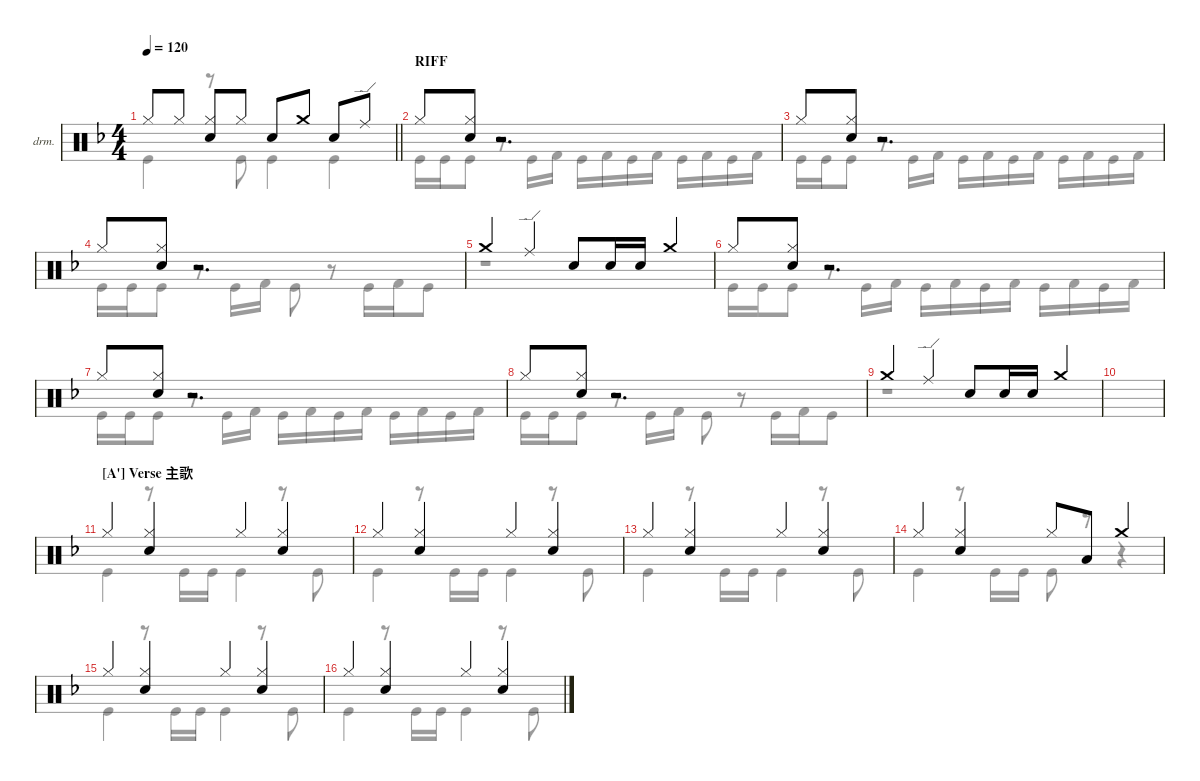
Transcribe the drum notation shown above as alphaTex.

\defaultSystemsLayout 4
\hideDynamics
\bracketExtendMode nobrackets
\firstSystemTrackNameOrientation horizontal
\track ("Drumkit" "drm.") {mute instrument percussion}
\staff {score}
\articulation defaults
\voice
\ts (4 4)
\tempo 120
\clef neutral
\barLineRight lightlight
\ks dminor "Hi-Hat (closed)"{acc forcenatural}.8{dy mf} "Hi-Hat (closed)"{acc forcenatural}.8
("Hi-Hat (closed)"{acc forcenatural} "Snare (hit) 2"{acc forcenatural}).8 "Hi-Hat (closed)"{acc forcenatural}.8 "Snare (hit) 2"{acc forcenatural}.8 "Crash medium (hit)"{acc forcenatural}.8 "Snare (hit) 2"{acc forcenatural}.8 "Ride (edge)"{acc forcenatural}.8 |
\section ("" "RIFF")
"Hi-Hat (closed)"{acc forcenatural}.8 ("Hi-Hat (closed)"{acc forcenatural} "Snare (hit) 2"{acc forcenatural}).8 r.2{d} |
"Hi-Hat (closed)"{acc forcenatural}.8 ("Hi-Hat (closed)"{acc forcenatural} "Snare (hit) 2"{acc forcenatural}).8 r.2{d} |
"Hi-Hat (closed)"{acc forcenatural}.8 ("Hi-Hat (closed)"{acc forcenatural} "Snare (hit) 2"{acc forcenatural}).8 r.2{d} |
"Crash medium (hit)"{acc forcenatural}.4 "Ride (edge)"{acc forcenatural}.4 "Snare (hit) 2"{acc forcenatural}.8 "Snare (hit) 2"{acc forcenatural}.16 "Snare (hit) 2"{acc forcenatural}.16 "Crash medium (hit)"{acc forcenatural}.4 |
"Hi-Hat (closed)"{acc forcenatural}.8 ("Hi-Hat (closed)"{acc forcenatural} "Snare (hit) 2"{acc forcenatural}).8 r.2{d} |
"Hi-Hat (closed)"{acc forcenatural}.8 ("Hi-Hat (closed)"{acc forcenatural} "Snare (hit) 2"{acc forcenatural}).8 r.2{d} |
"Hi-Hat (closed)"{acc forcenatural}.8 ("Hi-Hat (closed)"{acc forcenatural} "Snare (hit) 2"{acc forcenatural}).8 r.2{d} |
"Crash medium (hit)"{acc forcenatural}.4 "Ride (edge)"{acc forcenatural}.4 "Snare (hit) 2"{acc forcenatural}.8 "Snare (hit) 2"{acc forcenatural}.16 "Snare (hit) 2"{acc forcenatural}.16 "Crash medium (hit)"{acc forcenatural}.4 |
|
\section ("A'" "Verse 主歌")
"Hi-Hat (closed)"{acc forcenatural}.4 ("Snare (hit) 2"{acc forcenatural} "Hi-Hat (closed)"{acc forcenatural}).4 "Hi-Hat (closed)"{acc forcenatural}.4 ("Hi-Hat (closed)"{acc forcenatural} "Snare (hit) 2"{acc forcenatural}).4 |
"Hi-Hat (closed)"{acc forcenatural}.4 ("Snare (hit) 2"{acc forcenatural} "Hi-Hat (closed)"{acc forcenatural}).4 "Hi-Hat (closed)"{acc forcenatural}.4 ("Hi-Hat (closed)"{acc forcenatural} "Snare (hit) 2"{acc forcenatural}).4 |
"Hi-Hat (closed)"{acc forcenatural}.4 ("Snare (hit) 2"{acc forcenatural} "Hi-Hat (closed)"{acc forcenatural}).4 "Hi-Hat (closed)"{acc forcenatural}.4 ("Hi-Hat (closed)"{acc forcenatural} "Snare (hit) 2"{acc forcenatural}).4 |
"Hi-Hat (closed)"{acc forcenatural}.4 ("Snare (hit) 2"{acc forcenatural} "Hi-Hat (closed)"{acc forcenatural}).4 "Hi-Hat (closed)"{acc forcenatural}.8 "Low Floor Tom (hit)"{acc forcenatural}.8 "Crash medium (hit)"{acc forcenatural}.4 |
"Hi-Hat (closed)"{acc forcenatural}.4 ("Snare (hit) 2"{acc forcenatural} "Hi-Hat (closed)"{acc forcenatural}).4 "Hi-Hat (closed)"{acc forcenatural}.4 ("Hi-Hat (closed)"{acc forcenatural} "Snare (hit) 2"{acc forcenatural}).4 |
"Hi-Hat (closed)"{acc forcenatural}.4 ("Snare (hit) 2"{acc forcenatural} "Hi-Hat (closed)"{acc forcenatural}).4 "Hi-Hat (closed)"{acc forcenatural}.4 ("Hi-Hat (closed)"{acc forcenatural} "Snare (hit) 2"{acc forcenatural}).4
\voice
\clef neutral
\ottava regular
\simile none
\barLineRight lightlight
\ks dminor "Kick (hit)"{acc forcenatural}.4{dy mf}
r.8 "Kick (hit)"{acc forcenatural}.8 "Kick (hit)"{acc forcenatural}.4 "Kick (hit)"{acc forcenatural}.4 |
"Kick (hit)"{acc forcenatural}.16 "Kick (hit)"{acc forcenatural}.16 "Kick (hit)"{acc forcenatural}.8 r.8 "Kick (hit)"{acc forcenatural}.16 "Kick (hit) 2"{acc forcenatural}.16 "Kick (hit)"{acc forcenatural}.16 "Kick (hit) 2"{acc forcenatural}.16 "Kick (hit)"{acc forcenatural}.16 "Kick (hit) 2"{acc forcenatural}.16 "Kick (hit)"{acc forcenatural}.16 "Kick (hit) 2"{acc forcenatural}.16 "Kick (hit)"{acc forcenatural}.16 "Kick (hit) 2"{acc forcenatural}.16 |
"Kick (hit)"{acc forcenatural}.16 "Kick (hit)"{acc forcenatural}.16 "Kick (hit)"{acc forcenatural}.8 r.8 "Kick (hit)"{acc forcenatural}.16 "Kick (hit) 2"{acc forcenatural}.16 "Kick (hit)"{acc forcenatural}.16 "Kick (hit) 2"{acc forcenatural}.16 "Kick (hit)"{acc forcenatural}.16 "Kick (hit) 2"{acc forcenatural}.16 "Kick (hit)"{acc forcenatural}.16 "Kick (hit) 2"{acc forcenatural}.16 "Kick (hit)"{acc forcenatural}.16 "Kick (hit) 2"{acc forcenatural}.16 |
"Kick (hit)"{acc forcenatural}.16 "Kick (hit)"{acc forcenatural}.16 "Kick (hit)"{acc forcenatural}.8 r.8 "Kick (hit)"{acc forcenatural}.16 "Kick (hit) 2"{acc forcenatural}.16 "Kick (hit)"{acc forcenatural}.8 r.8 "Kick (hit)"{acc forcenatural}.16 "Kick (hit) 2"{acc forcenatural}.16 "Kick (hit)"{acc forcenatural}.8 |
r.1 |
"Kick (hit)"{acc forcenatural}.16 "Kick (hit)"{acc forcenatural}.16 "Kick (hit)"{acc forcenatural}.8 r.8 "Kick (hit)"{acc forcenatural}.16 "Kick (hit) 2"{acc forcenatural}.16 "Kick (hit)"{acc forcenatural}.16 "Kick (hit) 2"{acc forcenatural}.16 "Kick (hit)"{acc forcenatural}.16 "Kick (hit) 2"{acc forcenatural}.16 "Kick (hit)"{acc forcenatural}.16 "Kick (hit) 2"{acc forcenatural}.16 "Kick (hit)"{acc forcenatural}.16 "Kick (hit) 2"{acc forcenatural}.16 |
"Kick (hit)"{acc forcenatural}.16 "Kick (hit)"{acc forcenatural}.16 "Kick (hit)"{acc forcenatural}.8 r.8 "Kick (hit)"{acc forcenatural}.16 "Kick (hit) 2"{acc forcenatural}.16 "Kick (hit)"{acc forcenatural}.16 "Kick (hit) 2"{acc forcenatural}.16 "Kick (hit)"{acc forcenatural}.16 "Kick (hit) 2"{acc forcenatural}.16 "Kick (hit)"{acc forcenatural}.16 "Kick (hit) 2"{acc forcenatural}.16 "Kick (hit)"{acc forcenatural}.16 "Kick (hit) 2"{acc forcenatural}.16 |
"Kick (hit)"{acc forcenatural}.16 "Kick (hit)"{acc forcenatural}.16 "Kick (hit)"{acc forcenatural}.8 r.8 "Kick (hit)"{acc forcenatural}.16 "Kick (hit) 2"{acc forcenatural}.16 "Kick (hit)"{acc forcenatural}.8 r.8 "Kick (hit)"{acc forcenatural}.16 "Kick (hit) 2"{acc forcenatural}.16 "Kick (hit)"{acc forcenatural}.8 |
r.1 |
|
"Kick (hit)"{acc forcenatural}.4 r.8 "Kick (hit)"{acc forcenatural}.16 "Kick (hit)"{acc forcenatural}.16 "Kick (hit)"{acc forcenatural}.4 r.8 "Kick (hit)"{acc forcenatural}.8 |
"Kick (hit)"{acc forcenatural}.4 r.8 "Kick (hit)"{acc forcenatural}.16 "Kick (hit)"{acc forcenatural}.16 "Kick (hit)"{acc forcenatural}.4 r.8 "Kick (hit)"{acc forcenatural}.8 |
"Kick (hit)"{acc forcenatural}.4 r.8 "Kick (hit)"{acc forcenatural}.16 "Kick (hit)"{acc forcenatural}.16 "Kick (hit)"{acc forcenatural}.4 r.8 "Kick (hit)"{acc forcenatural}.8 |
"Kick (hit)"{acc forcenatural}.4 r.8 "Kick (hit)"{acc forcenatural}.16 "Kick (hit)"{acc forcenatural}.16 "Kick (hit)"{acc forcenatural}.8 r.8 r.4 |
"Kick (hit)"{acc forcenatural}.4 r.8 "Kick (hit)"{acc forcenatural}.16 "Kick (hit)"{acc forcenatural}.16 "Kick (hit)"{acc forcenatural}.4 r.8 "Kick (hit)"{acc forcenatural}.8 |
"Kick (hit)"{acc forcenatural}.4 r.8 "Kick (hit)"{acc forcenatural}.16 "Kick (hit)"{acc forcenatural}.16 "Kick (hit)"{acc forcenatural}.4 r.8 "Kick (hit)"{acc forcenatural}.8
